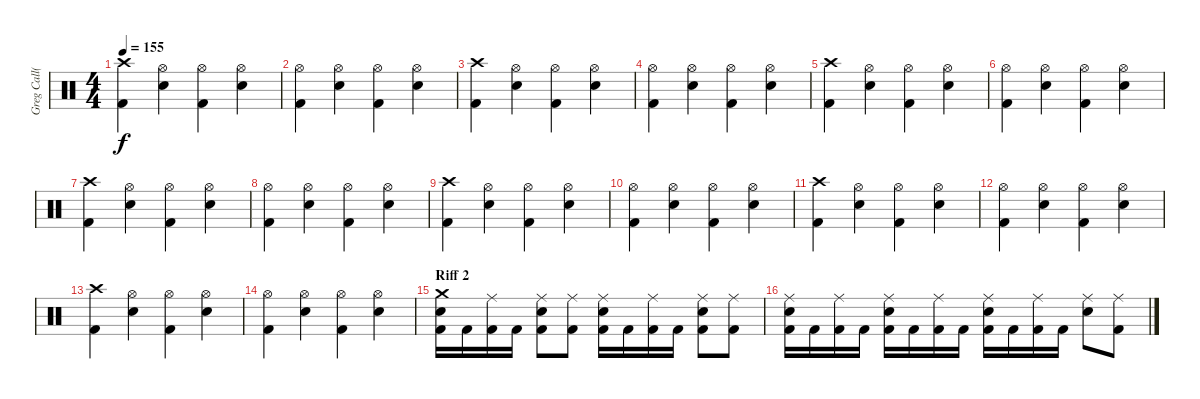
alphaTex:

\track ("Greg Call(Drums)" "Greg Call(") {instrument percussion}
\staff {score}
\articulation defaults
\ts (4 4)
\tempo 155
\clef neutral
\ks c
("Kick (hit) 2" "Crash high (hit)").4{dy f} ("Snare (hit) 2" "Hi-Hat (open)").4 ("Kick (hit) 2" "Hi-Hat (open)").4 ("Snare (hit) 2" "Hi-Hat (open)").4 |
("Kick (hit) 2" "Hi-Hat (open)").4 ("Snare (hit) 2" "Hi-Hat (open)").4 ("Kick (hit) 2" "Hi-Hat (open)").4 ("Snare (hit) 2" "Hi-Hat (open)").4 |
("Kick (hit) 2" "Crash high (hit)").4 ("Snare (hit) 2" "Hi-Hat (open)").4 ("Kick (hit) 2" "Hi-Hat (open)").4 ("Snare (hit) 2" "Hi-Hat (open)").4 |
("Kick (hit) 2" "Hi-Hat (open)").4 ("Snare (hit) 2" "Hi-Hat (open)").4 ("Kick (hit) 2" "Hi-Hat (open)").4 ("Snare (hit) 2" "Hi-Hat (open)").4 |
("Kick (hit) 2" "Crash high (hit)").4 ("Snare (hit) 2" "Hi-Hat (open)").4 ("Kick (hit) 2" "Hi-Hat (open)").4 ("Snare (hit) 2" "Hi-Hat (open)").4 |
("Kick (hit) 2" "Hi-Hat (open)").4 ("Snare (hit) 2" "Hi-Hat (open)").4 ("Kick (hit) 2" "Hi-Hat (open)").4 ("Snare (hit) 2" "Hi-Hat (open)").4 |
("Kick (hit) 2" "Crash high (hit)").4 ("Snare (hit) 2" "Hi-Hat (open)").4 ("Kick (hit) 2" "Hi-Hat (open)").4 ("Snare (hit) 2" "Hi-Hat (open)").4 |
("Kick (hit) 2" "Hi-Hat (open)").4 ("Snare (hit) 2" "Hi-Hat (open)").4 ("Kick (hit) 2" "Hi-Hat (open)").4 ("Snare (hit) 2" "Hi-Hat (open)").4 |
("Kick (hit) 2" "Crash high (hit)").4 ("Snare (hit) 2" "Hi-Hat (open)").4 ("Kick (hit) 2" "Hi-Hat (open)").4 ("Snare (hit) 2" "Hi-Hat (open)").4 |
("Kick (hit) 2" "Hi-Hat (open)").4 ("Snare (hit) 2" "Hi-Hat (open)").4 ("Kick (hit) 2" "Hi-Hat (open)").4 ("Snare (hit) 2" "Hi-Hat (open)").4 |
("Kick (hit) 2" "Crash high (hit)").4 ("Snare (hit) 2" "Hi-Hat (open)").4 ("Kick (hit) 2" "Hi-Hat (open)").4 ("Snare (hit) 2" "Hi-Hat (open)").4 |
("Kick (hit) 2" "Hi-Hat (open)").4 ("Snare (hit) 2" "Hi-Hat (open)").4 ("Kick (hit) 2" "Hi-Hat (open)").4 ("Snare (hit) 2" "Hi-Hat (open)").4 |
("Kick (hit) 2" "Crash high (hit)").4 ("Snare (hit) 2" "Hi-Hat (open)").4 ("Kick (hit) 2" "Hi-Hat (open)").4 ("Snare (hit) 2" "Hi-Hat (open)").4 |
("Kick (hit) 2" "Hi-Hat (open)").4 ("Snare (hit) 2" "Hi-Hat (open)").4 ("Kick (hit) 2" "Hi-Hat (open)").4 ("Snare (hit) 2" "Hi-Hat (open)").4 |
\section ("" "Riff 2")
("Kick (hit) 2" "Crash medium (hit)" "Snare (hit) 2").16 "Kick (hit) 2".16 ("Ride (middle)" "Kick (hit) 2").16 "Kick (hit) 2".16 ("Kick (hit) 2" "Ride (middle)" "Snare (hit) 2").8 ("Ride (middle)" "Kick (hit) 2").8 ("Kick (hit) 2" "Ride (middle)" "Snare (hit) 2").16 "Kick (hit) 2".16 ("Ride (middle)" "Kick (hit) 2").16 "Kick (hit) 2".16 ("Kick (hit) 2" "Ride (middle)" "Snare (hit) 2").8 ("Ride (middle)" "Kick (hit) 2").8 |
("Kick (hit) 2" "Ride (middle)" "Snare (hit) 2").16 "Kick (hit) 2".16 ("Ride (middle)" "Kick (hit) 2").16 "Kick (hit) 2".16 ("Kick (hit) 2" "Ride (middle)" "Snare (hit) 2").16 "Kick (hit) 2".16 ("Ride (middle)" "Kick (hit) 2").16 "Kick (hit) 2".16 ("Kick (hit) 2" "Ride (middle)" "Snare (hit) 2").16 "Kick (hit) 2".16 ("Ride (middle)" "Kick (hit) 2").16 "Kick (hit) 2".16 ("Ride (middle)" "Snare (hit) 2").8 ("Ride (middle)" "Kick (hit) 2").8
